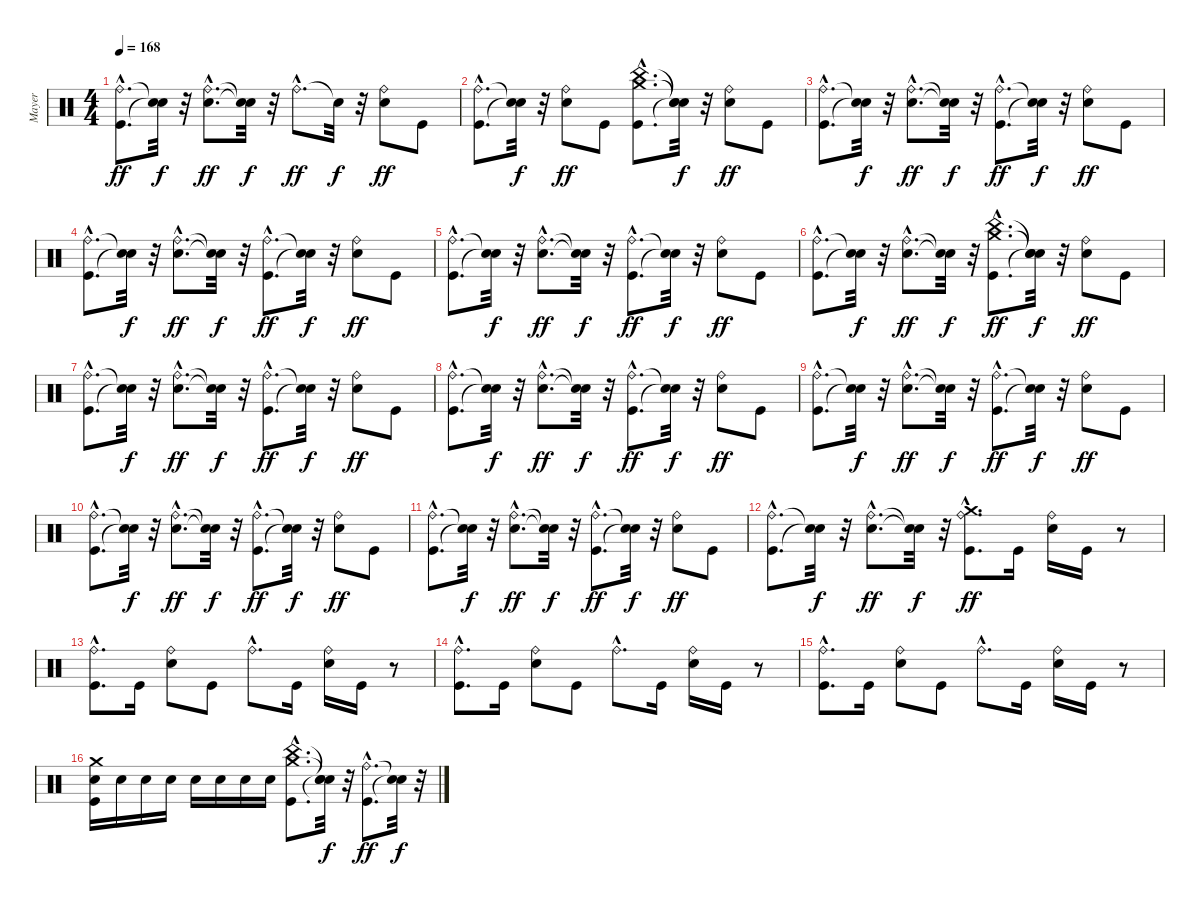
\track ("Mayer" "Mayer") {instrument percussion}
\staff {score}
\articulation defaults
\ts (4 4)
\tempo 168
\clef neutral
\ks c
("Kick (hit)"{hac} "Ride (bell)"{hac}).8{d dy ff} ("Snare (hit)"{t} "Snare (hit)"{t}).32{dy f} r.32 ("Electric Snare (hit)"{hac} "Ride (bell)"{hac}).8{d dy ff} ("Snare (hit)"{t} "Snare (hit)"{t}).32{dy f} r.32 "Ride (bell)"{hac}.8{d dy ff} "Snare (hit)"{t}.32{dy f} r.32 ("Electric Snare (hit)" "Ride (bell)").8{dy ff} "Kick (hit)".8 |
("Kick (hit)"{hac} "Ride (bell)"{hac}).8{d} ("Snare (hit)"{t} "Snare (hit)"{t}).32{dy f} r.32 ("Electric Snare (hit)" "Ride (bell)").8{dy ff} "Kick (hit)".8 ("Kick (hit)"{hac} "China (hit)"{hac} "Crash medium (hit)"{hac}).8{d} ("Snare (hit)"{t} "Snare (hit)"{t} "Snare (hit)"{t}).32{dy f} r.32 ("Electric Snare (hit)" "Ride (bell)").8{dy ff} "Kick (hit)".8 |
("Kick (hit)"{hac} "Ride (bell)"{hac}).8{d} ("Snare (hit)"{t} "Snare (hit)"{t}).32{dy f} r.32 ("Electric Snare (hit)"{hac} "Ride (bell)"{hac}).8{d dy ff} ("Snare (hit)"{t} "Snare (hit)"{t}).32{dy f} r.32 ("Kick (hit)"{hac} "Ride (bell)"{hac}).8{d dy ff} ("Snare (hit)"{t} "Snare (hit)"{t}).32{dy f} r.32 ("Electric Snare (hit)" "Ride (bell)").8{dy ff} "Kick (hit)".8 |
("Kick (hit)"{hac} "Ride (bell)"{hac}).8{d} ("Snare (hit)"{t} "Snare (hit)"{t}).32{dy f} r.32 ("Electric Snare (hit)"{hac} "Ride (bell)"{hac}).8{d dy ff} ("Snare (hit)"{t} "Snare (hit)"{t}).32{dy f} r.32 ("Kick (hit)"{hac} "Ride (bell)"{hac}).8{d dy ff} ("Snare (hit)"{t} "Snare (hit)"{t}).32{dy f} r.32 ("Electric Snare (hit)" "Ride (bell)").8{dy ff} "Kick (hit)".8 |
("Kick (hit)"{hac} "Ride (bell)"{hac}).8{d} ("Snare (hit)"{t} "Snare (hit)"{t}).32{dy f} r.32 ("Electric Snare (hit)"{hac} "Ride (bell)"{hac}).8{d dy ff} ("Snare (hit)"{t} "Snare (hit)"{t}).32{dy f} r.32 ("Kick (hit)"{hac} "Ride (bell)"{hac}).8{d dy ff} ("Snare (hit)"{t} "Snare (hit)"{t}).32{dy f} r.32 ("Electric Snare (hit)" "Ride (bell)").8{dy ff} "Kick (hit)".8 |
("Kick (hit)"{hac} "Ride (bell)"{hac}).8{d} ("Snare (hit)"{t} "Snare (hit)"{t}).32{dy f} r.32 ("Electric Snare (hit)"{hac} "Ride (bell)"{hac}).8{d dy ff} ("Snare (hit)"{t} "Snare (hit)"{t}).32{dy f} r.32 ("Kick (hit)"{hac} "China (hit)"{hac} "Crash medium (hit)"{hac}).8{d dy ff} ("Snare (hit)"{t} "Snare (hit)"{t} "Snare (hit)"{t}).32{dy f} r.32 ("Electric Snare (hit)" "Ride (bell)").8{dy ff} "Kick (hit)".8 |
("Kick (hit)"{hac} "Ride (bell)"{hac}).8{d} ("Snare (hit)"{t} "Snare (hit)"{t}).32{dy f} r.32 ("Electric Snare (hit)"{hac} "Ride (bell)"{hac}).8{d dy ff} ("Snare (hit)"{t} "Snare (hit)"{t}).32{dy f} r.32 ("Kick (hit)"{hac} "Ride (bell)"{hac}).8{d dy ff} ("Snare (hit)"{t} "Snare (hit)"{t}).32{dy f} r.32 ("Electric Snare (hit)" "Ride (bell)").8{dy ff} "Kick (hit)".8 |
("Kick (hit)"{hac} "Ride (bell)"{hac}).8{d} ("Snare (hit)"{t} "Snare (hit)"{t}).32{dy f} r.32 ("Electric Snare (hit)"{hac} "Ride (bell)"{hac}).8{d dy ff} ("Snare (hit)"{t} "Snare (hit)"{t}).32{dy f} r.32 ("Kick (hit)"{hac} "Ride (bell)"{hac}).8{d dy ff} ("Snare (hit)"{t} "Snare (hit)"{t}).32{dy f} r.32 ("Electric Snare (hit)" "Ride (bell)").8{dy ff} "Kick (hit)".8 |
("Kick (hit)"{hac} "Ride (bell)"{hac}).8{d} ("Snare (hit)"{t} "Snare (hit)"{t}).32{dy f} r.32 ("Electric Snare (hit)"{hac} "Ride (bell)"{hac}).8{d dy ff} ("Snare (hit)"{t} "Snare (hit)"{t}).32{dy f} r.32 ("Kick (hit)"{hac} "Ride (bell)"{hac}).8{d dy ff} ("Snare (hit)"{t} "Snare (hit)"{t}).32{dy f} r.32 ("Electric Snare (hit)" "Ride (bell)").8{dy ff} "Kick (hit)".8 |
("Kick (hit)"{hac} "Ride (bell)"{hac}).8{d} ("Snare (hit)"{t} "Snare (hit)"{t}).32{dy f} r.32 ("Electric Snare (hit)"{hac} "Ride (bell)"{hac}).8{d dy ff} ("Snare (hit)"{t} "Snare (hit)"{t}).32{dy f} r.32 ("Kick (hit)"{hac} "Ride (bell)"{hac}).8{d dy ff} ("Snare (hit)"{t} "Snare (hit)"{t}).32{dy f} r.32 ("Electric Snare (hit)" "Ride (bell)").8{dy ff} "Kick (hit)".8 |
("Kick (hit)"{hac} "Ride (bell)"{hac}).8{d} ("Snare (hit)"{t} "Snare (hit)"{t}).32{dy f} r.32 ("Electric Snare (hit)"{hac} "Ride (bell)"{hac}).8{d dy ff} ("Snare (hit)"{t} "Snare (hit)"{t}).32{dy f} r.32 ("Kick (hit)"{hac} "Ride (bell)"{hac}).8{d dy ff} ("Snare (hit)"{t} "Snare (hit)"{t}).32{dy f} r.32 ("Electric Snare (hit)" "Ride (bell)").8{dy ff} "Kick (hit)".8 |
("Kick (hit)"{hac} "Ride (bell)"{hac}).8{d} ("Snare (hit)"{t} "Snare (hit)"{t}).32{dy f} r.32 ("Electric Snare (hit)"{hac} "Ride (bell)"{hac}).8{d dy ff} ("Snare (hit)"{t} "Snare (hit)"{t}).32{dy f} r.32 ("Kick (hit)"{hac} "Ride (bell)"{hac} "Crash medium (hit)"{hac}).8{d dy ff} "Kick (hit)".16 ("Electric Snare (hit)" "Ride (bell)").16 "Kick (hit)".16 r.8 |
("Kick (hit)"{hac} "Ride (bell)"{hac}).8{d} "Kick (hit)".16 ("Electric Snare (hit)" "Ride (bell)").8 "Kick (hit)".8 "Ride (bell)"{hac}.8{d} "Kick (hit)".16 ("Electric Snare (hit)" "Ride (bell)").16 "Kick (hit)".16 r.8 |
("Kick (hit)"{hac} "Ride (bell)"{hac}).8{d} "Kick (hit)".16 ("Electric Snare (hit)" "Ride (bell)").8 "Kick (hit)".8 "Ride (bell)"{hac}.8{d} "Kick (hit)".16 ("Electric Snare (hit)" "Ride (bell)").16 "Kick (hit)".16 r.8 |
("Kick (hit)"{hac} "Ride (bell)"{hac}).8{d} "Kick (hit)".16 ("Electric Snare (hit)" "Ride (bell)").8 "Kick (hit)".8 "Ride (bell)"{hac}.8{d} "Kick (hit)".16 ("Electric Snare (hit)" "Ride (bell)").16 "Kick (hit)".16 r.8 |
("Kick (hit)" "Electric Snare (hit)" "Crash medium (hit)").16 "Electric Snare (hit)".16 "Electric Snare (hit)".16 "Electric Snare (hit)".16 "Electric Snare (hit)".16 "Electric Snare (hit)".16 "Electric Snare (hit)".16 "Electric Snare (hit)".16 ("Kick (hit)"{hac} "China (hit)"{hac} "Crash medium (hit)"{hac}).8{d} ("Snare (hit)"{t} "Snare (hit)"{t} "Snare (hit)"{t}).32{dy f} r.32 ("Kick (hit)"{hac} "Ride (bell)"{hac}).8{d dy ff} ("Snare (hit)"{t} "Snare (hit)"{t}).32{dy f} r.32
